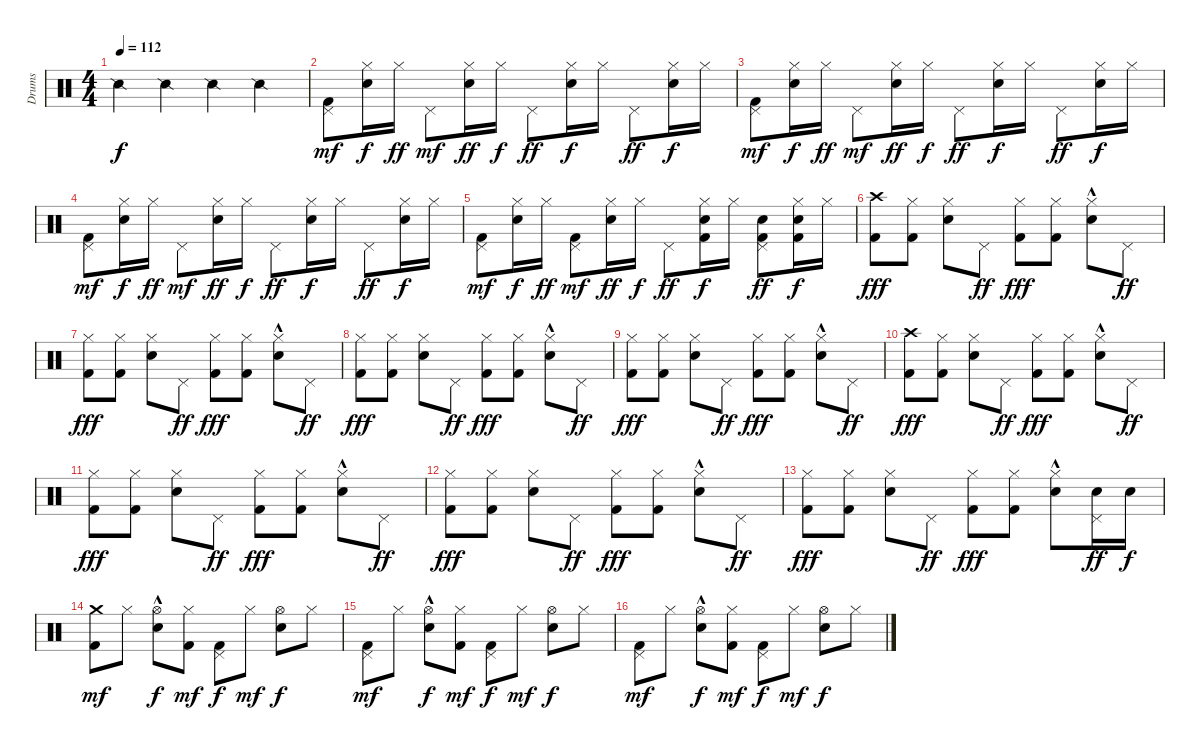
\track ("Drums" "Drums") {instrument percussion}
\staff {score}
\articulation defaults
\ts (4 4)
\tempo 112
\clef neutral
\ks c "Snare (side stick) 2".4{dy f} "Snare (side stick) 2".4 "Snare (side stick) 2".4 "Snare (side stick) 2".4
|
("Pedal Hi-Hat (hit)" "Kick (hit) 2").8{dy mf} ("Hi-Hat (closed)" "Snare (hit) 2").16{dy f} "Hi-Hat (closed)".16{dy ff} "Pedal Hi-Hat (hit)".8{dy mf} ("Hi-Hat (closed)" "Snare (hit) 2").16{dy ff} "Hi-Hat (closed)".16{dy f} "Pedal Hi-Hat (hit)".8{dy ff} ("Hi-Hat (closed)" "Snare (hit) 2").16{dy f} "Hi-Hat (closed)".16 "Pedal Hi-Hat (hit)".8{dy ff} ("Hi-Hat (closed)" "Snare (hit) 2").16{dy f} "Hi-Hat (closed)".16 |
("Pedal Hi-Hat (hit)" "Kick (hit) 2").8{dy mf} ("Hi-Hat (closed)" "Snare (hit) 2").16{dy f} "Hi-Hat (closed)".16{dy ff} "Pedal Hi-Hat (hit)".8{dy mf} ("Hi-Hat (closed)" "Snare (hit) 2").16{dy ff} "Hi-Hat (closed)".16{dy f} "Pedal Hi-Hat (hit)".8{dy ff} ("Hi-Hat (closed)" "Snare (hit) 2").16{dy f} "Hi-Hat (closed)".16 "Pedal Hi-Hat (hit)".8{dy ff} ("Hi-Hat (closed)" "Snare (hit) 2").16{dy f} "Hi-Hat (closed)".16 |
("Pedal Hi-Hat (hit)" "Kick (hit) 2").8{dy mf} ("Hi-Hat (closed)" "Snare (hit) 2").16{dy f} "Hi-Hat (closed)".16{dy ff} "Pedal Hi-Hat (hit)".8{dy mf} ("Hi-Hat (closed)" "Snare (hit) 2").16{dy ff} "Hi-Hat (closed)".16{dy f} "Pedal Hi-Hat (hit)".8{dy ff} ("Hi-Hat (closed)" "Snare (hit) 2").16{dy f} "Hi-Hat (closed)".16 "Pedal Hi-Hat (hit)".8{dy ff} ("Hi-Hat (closed)" "Snare (hit) 2").16{dy f} "Hi-Hat (closed)".16 |
("Pedal Hi-Hat (hit)" "Kick (hit) 2").8{dy mf} ("Hi-Hat (closed)" "Snare (hit) 2").16{dy f} "Hi-Hat (closed)".16{dy ff} ("Pedal Hi-Hat (hit)" "Kick (hit) 2").8{dy mf} ("Hi-Hat (closed)" "Snare (hit) 2").16{dy ff} "Hi-Hat (closed)".16{dy f} "Pedal Hi-Hat (hit)".8{dy ff} ("Hi-Hat (closed)" "Snare (hit) 2" "Kick (hit) 2").16{dy f} "Hi-Hat (closed)".16 ("Pedal Hi-Hat (hit)" "Snare (hit) 2" "Kick (hit) 2").8{dy ff} ("Hi-Hat (closed)" "Snare (hit) 2" "Kick (hit) 2").16{dy f} "Hi-Hat (closed)".16 |
("Crash high (hit)" "Kick (hit) 2").8{dy fff} ("Hi-Hat (closed)" "Kick (hit) 2").8 ("Hi-Hat (closed)" "Snare (hit) 2").8 "Pedal Hi-Hat (hit)".8{dy ff} ("Hi-Hat (closed)" "Kick (hit) 2").8{dy fff} ("Hi-Hat (closed)" "Kick (hit) 2").8 ("Hi-Hat (closed)"{hac} "Snare (hit) 2").8 "Pedal Hi-Hat (hit)".8{dy ff} |
("Hi-Hat (closed)" "Kick (hit) 2").8{dy fff} ("Hi-Hat (closed)" "Kick (hit) 2").8 ("Hi-Hat (closed)" "Snare (hit) 2").8 "Pedal Hi-Hat (hit)".8{dy ff} ("Hi-Hat (closed)" "Kick (hit) 2").8{dy fff} ("Hi-Hat (closed)" "Kick (hit) 2").8 ("Hi-Hat (closed)"{hac} "Snare (hit) 2").8 "Pedal Hi-Hat (hit)".8{dy ff} |
("Hi-Hat (closed)" "Kick (hit) 2").8{dy fff} ("Hi-Hat (closed)" "Kick (hit) 2").8 ("Hi-Hat (closed)" "Snare (hit) 2").8 "Pedal Hi-Hat (hit)".8{dy ff} ("Hi-Hat (closed)" "Kick (hit) 2").8{dy fff} ("Hi-Hat (closed)" "Kick (hit) 2").8 ("Hi-Hat (closed)"{hac} "Snare (hit) 2").8 "Pedal Hi-Hat (hit)".8{dy ff} |
("Hi-Hat (closed)" "Kick (hit) 2").8{dy fff} ("Hi-Hat (closed)" "Kick (hit) 2").8 ("Hi-Hat (closed)" "Snare (hit) 2").8 "Pedal Hi-Hat (hit)".8{dy ff} ("Hi-Hat (closed)" "Kick (hit) 2").8{dy fff} ("Hi-Hat (closed)" "Kick (hit) 2").8 ("Hi-Hat (closed)"{hac} "Snare (hit) 2").8 "Pedal Hi-Hat (hit)".8{dy ff} |
("Crash high (hit)" "Kick (hit) 2").8{dy fff} ("Hi-Hat (closed)" "Kick (hit) 2").8 ("Hi-Hat (closed)" "Snare (hit) 2").8 "Pedal Hi-Hat (hit)".8{dy ff} ("Hi-Hat (closed)" "Kick (hit) 2").8{dy fff} ("Hi-Hat (closed)" "Kick (hit) 2").8 ("Hi-Hat (closed)"{hac} "Snare (hit) 2").8 "Pedal Hi-Hat (hit)".8{dy ff} |
("Hi-Hat (closed)" "Kick (hit) 2").8{dy fff} ("Hi-Hat (closed)" "Kick (hit) 2").8 ("Hi-Hat (closed)" "Snare (hit) 2").8 "Pedal Hi-Hat (hit)".8{dy ff} ("Hi-Hat (closed)" "Kick (hit) 2").8{dy fff} ("Hi-Hat (closed)" "Kick (hit) 2").8 ("Hi-Hat (closed)"{hac} "Snare (hit) 2").8 "Pedal Hi-Hat (hit)".8{dy ff} |
("Hi-Hat (closed)" "Kick (hit) 2").8{dy fff} ("Hi-Hat (closed)" "Kick (hit) 2").8 ("Hi-Hat (closed)" "Snare (hit) 2").8 "Pedal Hi-Hat (hit)".8{dy ff} ("Hi-Hat (closed)" "Kick (hit) 2").8{dy fff} ("Hi-Hat (closed)" "Kick (hit) 2").8 ("Hi-Hat (closed)"{hac} "Snare (hit) 2").8 "Pedal Hi-Hat (hit)".8{dy ff} |
("Hi-Hat (closed)" "Kick (hit) 2").8{dy fff} ("Hi-Hat (closed)" "Kick (hit) 2").8 ("Hi-Hat (closed)" "Snare (hit) 2").8 "Pedal Hi-Hat (hit)".8{dy ff} ("Hi-Hat (closed)" "Kick (hit) 2").8{dy fff} ("Hi-Hat (closed)" "Kick (hit) 2").8 ("Hi-Hat (closed)"{hac} "Snare (hit) 2").8 ("Pedal Hi-Hat (hit)" "Snare (hit) 2").16{dy ff} "Snare (hit) 2".16{dy f} |
("Crash medium (hit)" "Kick (hit) 2").8{dy mf} "Hi-Hat (closed)".8 ("Hi-Hat (open)"{hac} "Snare (hit) 2").8{dy f} ("Hi-Hat (closed)" "Kick (hit) 2").8{dy mf} ("Pedal Hi-Hat (hit)" "Kick (hit) 2").8{dy f} "Hi-Hat (closed)".8{dy mf} ("Hi-Hat (open)" "Snare (hit) 2").8{dy f} "Hi-Hat (closed)".8 |
("Pedal Hi-Hat (hit)" "Kick (hit) 2").8{dy mf} "Hi-Hat (closed)".8 ("Hi-Hat (open)"{hac} "Snare (hit) 2").8{dy f} ("Hi-Hat (closed)" "Kick (hit) 2").8{dy mf} ("Pedal Hi-Hat (hit)" "Kick (hit) 2").8{dy f} "Hi-Hat (closed)".8{dy mf} ("Hi-Hat (open)" "Snare (hit) 2").8{dy f} "Hi-Hat (closed)".8 |
("Pedal Hi-Hat (hit)" "Kick (hit) 2").8{dy mf} "Hi-Hat (closed)".8 ("Hi-Hat (open)"{hac} "Snare (hit) 2").8{dy f} ("Hi-Hat (closed)" "Kick (hit) 2").8{dy mf} ("Pedal Hi-Hat (hit)" "Kick (hit) 2").8{dy f} "Hi-Hat (closed)".8{dy mf} ("Hi-Hat (open)" "Snare (hit) 2").8{dy f} "Hi-Hat (closed)".8
